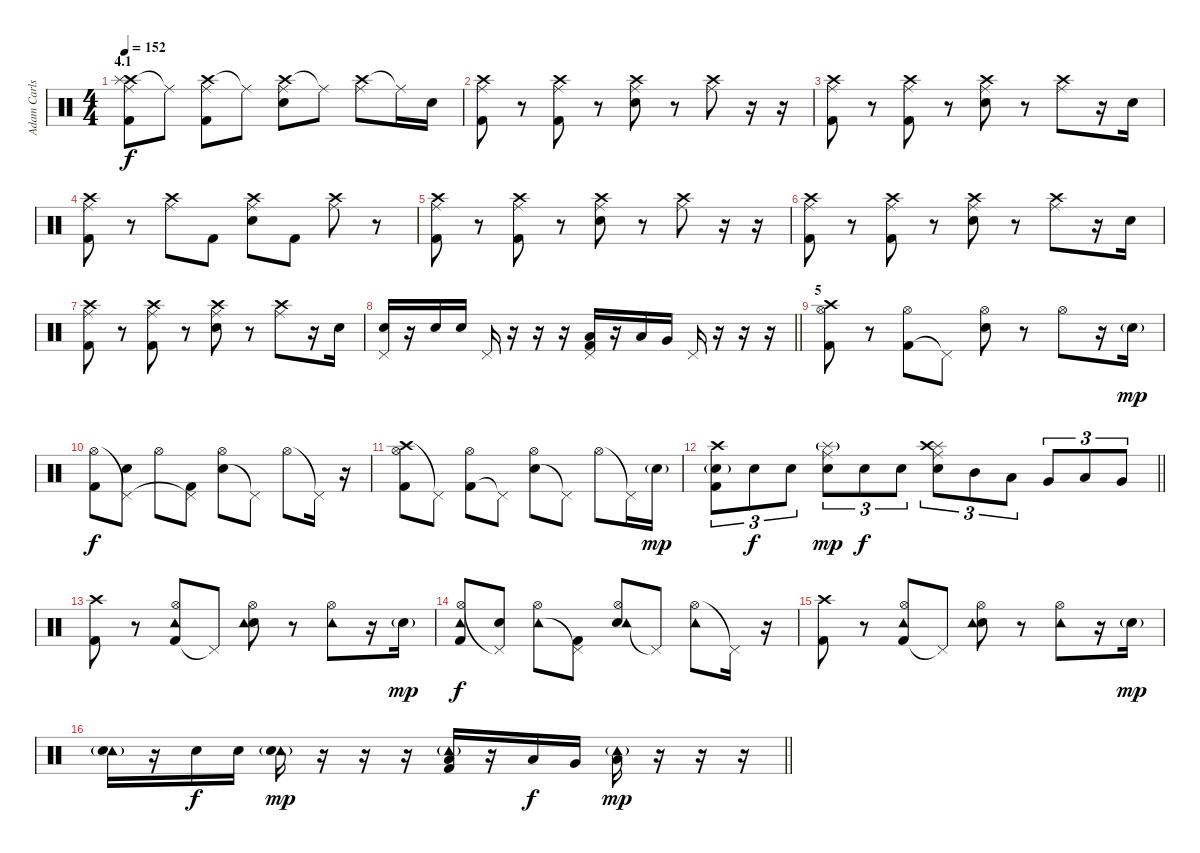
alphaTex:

\track ("Adam Carlson" "Adam Carls") {instrument percussion}
\staff {score}
\articulation defaults
\ts (4 4)
\section ("" "4.1")
\tempo 152
\clef neutral
\ks c
("Crash high (hit)" "Splash (hit)" "Ride (middle)" "Kick (hit) 2").8{dy f} "Ride (middle)"{t}.8 ("Crash high (hit)" "Ride (middle)" "Kick (hit) 2").8 "Ride (middle)"{t}.8 ("Crash high (hit)" "Snare (hit) 2" "Ride (middle)").8 "Ride (middle)"{t}.8 ("Crash high (hit)" "Ride (middle)").8 "Ride (middle)"{t}.16 "Snare (hit) 2".16 |
("Crash high (hit)" "Ride (middle)" "Kick (hit) 2").8 r.8 ("Crash high (hit)" "Ride (middle)" "Kick (hit) 2").8 r.8 ("Crash high (hit)" "Snare (hit) 2" "Ride (middle)").8 r.8 ("Crash high (hit)" "Ride (middle)").8 r.16 r.16 |
("Crash high (hit)" "Ride (middle)" "Kick (hit) 2").8 r.8 ("Crash high (hit)" "Ride (middle)" "Kick (hit) 2").8 r.8 ("Crash high (hit)" "Snare (hit) 2" "Ride (middle)").8 r.8 ("Crash high (hit)" "Ride (middle)").8 r.16 "Snare (hit) 2".16 |
("Crash high (hit)" "Ride (middle)" "Kick (hit) 2").8 r.8 ("Crash high (hit)" "Ride (middle)").8 "Kick (hit) 2".8 ("Crash high (hit)" "Snare (hit) 2" "Ride (middle)").8 "Kick (hit) 2".8 ("Crash high (hit)" "Ride (middle)").8 r.8 |
("Crash high (hit)" "Ride (middle)" "Kick (hit) 2").8 r.8 ("Crash high (hit)" "Ride (middle)" "Kick (hit) 2").8 r.8 ("Crash high (hit)" "Snare (hit) 2" "Ride (middle)").8 r.8 ("Crash high (hit)" "Ride (middle)").8 r.16 r.16 |
("Crash high (hit)" "Ride (middle)" "Kick (hit) 2").8 r.8 ("Crash high (hit)" "Ride (middle)" "Kick (hit) 2").8 r.8 ("Crash high (hit)" "Snare (hit) 2" "Ride (middle)").8 r.8 ("Crash high (hit)" "Ride (middle)").8 r.16 "Snare (hit) 2".16 |
("Crash high (hit)" "Ride (middle)" "Kick (hit) 2").8 r.8 ("Crash high (hit)" "Ride (middle)" "Kick (hit) 2").8 r.8 ("Crash high (hit)" "Snare (hit) 2" "Ride (middle)").8 r.8 ("Crash high (hit)" "Ride (middle)").8 r.16 "Snare (hit) 2".16 |
\barLineRight lightlight
("Pedal Hi-Hat (hit)" "Snare (hit) 2").16 r.16 "Snare (hit) 2".16 "Snare (hit) 2".16 "Pedal Hi-Hat (hit)".16 r.16 r.16 r.16 ("Pedal Hi-Hat (hit)" "Low Tom (hit)" "Kick (hit) 2").16{bd 120} r.16 "Low Tom (hit)".16 "Very Low Tom (hit)".16 "Pedal Hi-Hat (hit)".16 r.16 r.16 r.16 |
\section ("" "5")
("Crash high (hit)" "Kick (hit) 2" "Hi-Hat (open)").8 r.8 ("Kick (hit) 2" "Hi-Hat (open)").8 "Pedal Hi-Hat (hit)"{t}.8 ("Snare (hit) 2" "Hi-Hat (open)").8 r.8 "Hi-Hat (open)".8 r.16 "Snare (hit) 2"{g}.16{dy mp} |
("Kick (hit) 2" "Hi-Hat (open)").8{dy f} ("Snare (hit) 2" "Pedal Hi-Hat (hit)"{t}).8 "Hi-Hat (open)".8 ("Kick (hit) 2" "Pedal Hi-Hat (hit)"{t}).8 ("Snare (hit) 2" "Hi-Hat (open)").8 "Pedal Hi-Hat (hit)"{t}.8 "Hi-Hat (open)".8 "Pedal Hi-Hat (hit)"{t}.16 r.16 |
("Crash high (hit)" "Kick (hit) 2" "Hi-Hat (open)").8 "Pedal Hi-Hat (hit)"{t}.8 ("Kick (hit) 2" "Hi-Hat (open)").8 "Pedal Hi-Hat (hit)"{t}.8 ("Snare (hit) 2" "Hi-Hat (open)").8 "Pedal Hi-Hat (hit)"{t}.8 "Hi-Hat (open)".8 "Pedal Hi-Hat (hit)"{t}.16 "Snare (hit) 2"{g}.16{dy mp} |
\barLineRight lightlight
("Snare (hit) 2"{g} "Crash high (hit)" "Kick (hit) 2").8{tu (3 2)} "Snare (hit) 2".8{tu (3 2) dy f} "Snare (hit) 2".8{tu (3 2)} ("Snare (hit) 2" "Ride (middle)" "Splash (hit)"{g}).8{tu (3 2) dy mp} "Snare (hit) 2".8{tu (3 2) dy f} "Snare (hit) 2".8{tu (3 2)} ("Snare (hit) 2" "Ride (middle)" "Splash (hit)" "Crash high (hit)").8{tu (3 2)} "Mid Tom (hit)".8{tu (3 2)} "Low Tom (hit)".8{tu (3 2)} "Very Low Tom (hit)".8{tu (3 2)} "Low Tom (hit)".8{tu (3 2)} "Very Low Tom (hit)".8{tu (3 2)} |
("Crash high (hit)" "Kick (hit) 2").8 r.8 ("Kick (hit) 2" "Hi-Hat (open)" "Tambourine (hit)").8 "Pedal Hi-Hat (hit)"{t}.8 ("Snare (hit) 2" "Hi-Hat (open)" "Tambourine (hit)").8 r.8 ("Hi-Hat (open)" "Tambourine (hit)").8 r.16 "Snare (hit) 2"{g}.16{dy mp} |
("Kick (hit) 2" "Hi-Hat (open)" "Tambourine (hit)").8{dy f} ("Snare (hit) 2" "Pedal Hi-Hat (hit)"{t}).8 ("Hi-Hat (open)" "Tambourine (hit)").8 ("Kick (hit) 2" "Pedal Hi-Hat (hit)"{t}).8 ("Snare (hit) 2" "Hi-Hat (open)" "Tambourine (hit)").8 "Pedal Hi-Hat (hit)"{t}.8 ("Hi-Hat (open)" "Tambourine (hit)").8 "Pedal Hi-Hat (hit)"{t}.16 r.16 |
("Crash high (hit)" "Kick (hit) 2").8 r.8 ("Kick (hit) 2" "Hi-Hat (open)" "Tambourine (hit)").8 "Pedal Hi-Hat (hit)"{t}.8 ("Snare (hit) 2" "Hi-Hat (open)" "Tambourine (hit)").8 r.8 ("Hi-Hat (open)" "Tambourine (hit)").8 r.16 "Snare (hit) 2"{g}.16{dy mp} |
\barLineRight lightlight
("Tambourine (hit)"{g} "Snare (hit) 2").16 r.16 "Snare (hit) 2".16{dy f} "Snare (hit) 2".16 ("Tambourine (hit)"{g} "Snare (hit) 2").16{dy mp} r.16 r.16 r.16 ("Tambourine (hit)"{g} "Low Tom (hit)" "Kick (hit) 2").16{bd 120} r.16 "Low Tom (hit)".16{dy f} "Very Low Tom (hit)".16 ("Tambourine (hit)"{g} "Low Tom (hit)").16{dy mp} r.16 r.16 r.16
